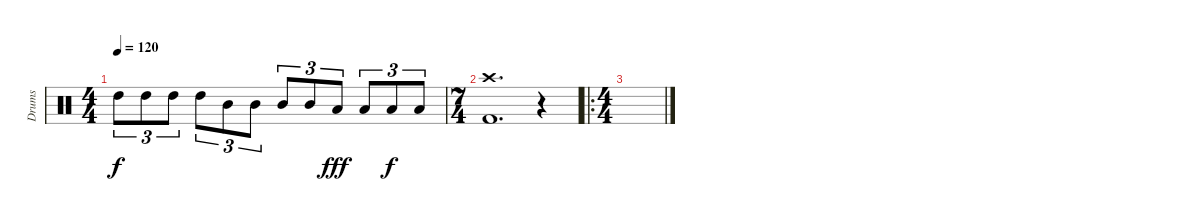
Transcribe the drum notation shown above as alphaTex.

\track ("Drums" "Drums") {instrument percussion}
\staff {score}
\articulation defaults
\ts (4 4)
\tempo 120
\clef neutral
\ks c "High Tom (hit)".8{tu (3 2) dy f} "High Tom (hit)".8{tu (3 2)} "High Tom (hit)".8{tu (3 2)} "High Tom (hit)".8{tu (3 2)} "Mid Tom (hit)".8{tu (3 2)} "Mid Tom (hit)".8{tu (3 2)} "Mid Tom (hit)".8{tu (3 2)} "Mid Tom (hit)".8{tu (3 2)} "Low Tom (hit)".8{tu (3 2) dy fff} "Low Tom (hit)".8{tu (3 2)} "Low Tom (hit)".8{tu (3 2) dy f} "Low Tom (hit)".8{tu (3 2)}
|
\ts (7 4)
("Kick (hit) 2" "Crash high (hit)").1{d} r.4 |
\ro
\ts (4 4)
